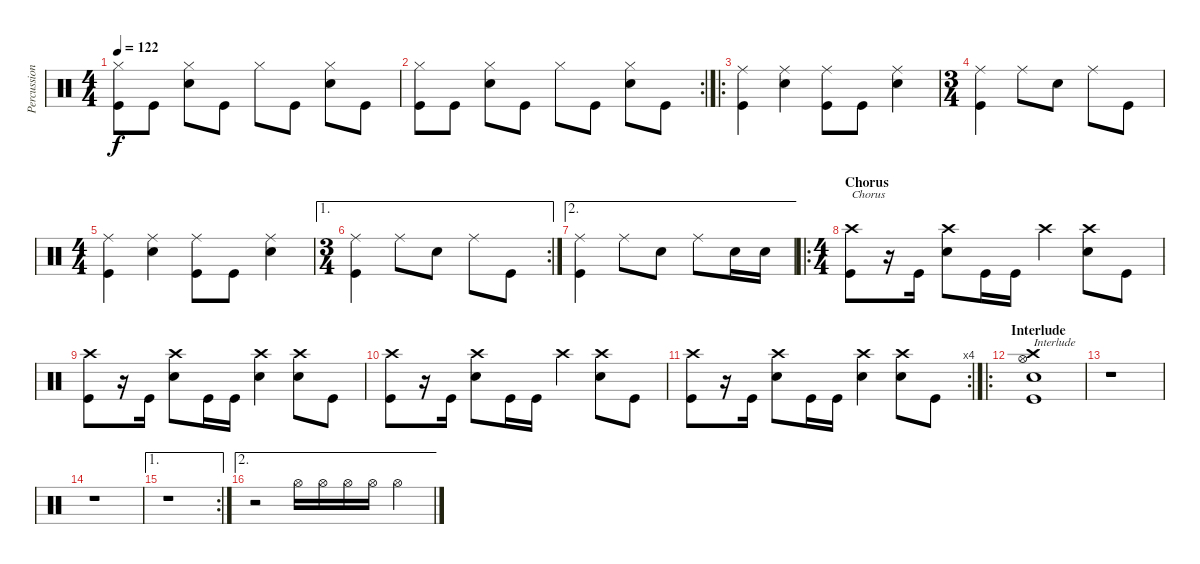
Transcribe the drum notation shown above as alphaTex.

\track ("Percussion" "Percussion") {instrument percussion}
\staff {score}
\articulation defaults
\ts (4 4)
\tempo 122
\clef neutral
\ks c
("Hi-Hat (closed)" "Kick (hit)").8{dy f} "Kick (hit)".8 ("Hi-Hat (closed)" "Snare (hit) 2").8 "Kick (hit)".8 "Hi-Hat (closed)".8 "Kick (hit)".8 ("Hi-Hat (closed)" "Snare (hit) 2").8 "Kick (hit)".8 |
\rc 2
("Hi-Hat (closed)" "Kick (hit)").8 "Kick (hit)".8 ("Hi-Hat (closed)" "Snare (hit) 2").8 "Kick (hit)".8 "Hi-Hat (closed)".8 "Kick (hit)".8 ("Hi-Hat (closed)" "Snare (hit) 2").8 "Kick (hit)".8 |
\ro
("Ride (middle)" "Kick (hit)").4 ("Ride (middle)" "Snare (hit) 2").4 ("Ride (middle)" "Kick (hit)").8 "Kick (hit)".8 ("Ride (middle)" "Snare (hit) 2").4 |
\ts (3 4)
("Ride (middle)" "Kick (hit)").4 "Ride (middle)".8 "Snare (hit) 2".8 "Ride (middle)".8 "Kick (hit)".8 |
\ts (4 4)
("Ride (middle)" "Kick (hit)").4 ("Ride (middle)" "Snare (hit) 2").4 ("Ride (middle)" "Kick (hit)").8 "Kick (hit)".8 ("Ride (middle)" "Snare (hit) 2").4 |
\ae 1
\rc 2
\ts (3 4)
("Ride (middle)" "Kick (hit)").4 "Ride (middle)".8 "Snare (hit) 2".8 "Ride (middle)".8 "Kick (hit)".8 |
\ae 2
("Ride (middle)" "Kick (hit)").4 "Ride (middle)".8 "Snare (hit) 2".8 "Ride (middle)".8 "Snare (hit) 2".16 "Snare (hit) 2".16 |
\ro
\ts (4 4)
\section ("" "Chorus")
("Crash high (hit)" "Kick (hit)").8{txt "Chorus"} r.16 "Kick (hit)".16 ("Crash high (hit)" "Snare (hit) 2").8 "Kick (hit)".16 "Kick (hit)".16 "Crash high (hit)".4 ("Crash high (hit)" "Snare (hit) 2").8 "Kick (hit)".8 |
("Crash high (hit)" "Kick (hit)").8 r.16 "Kick (hit)".16 ("Crash high (hit)" "Snare (hit) 2").8 "Kick (hit)".16 "Kick (hit)".16 ("Crash high (hit)" "Snare (hit) 2").4 ("Crash high (hit)" "Snare (hit) 2").8 "Kick (hit)".8 |
("Crash high (hit)" "Kick (hit)").8 r.16 "Kick (hit)".16 ("Crash high (hit)" "Snare (hit) 2").8 "Kick (hit)".16 "Kick (hit)".16 "Crash high (hit)".4 ("Crash high (hit)" "Snare (hit) 2").8 "Kick (hit)".8 |
\rc 4
("Crash high (hit)" "Kick (hit)").8 r.16 "Kick (hit)".16 ("Crash high (hit)" "Snare (hit) 2").8 "Kick (hit)".16 "Kick (hit)".16 ("Crash high (hit)" "Snare (hit) 2").4 ("Crash high (hit)" "Snare (hit) 2").8 "Kick (hit)".8 |
\ro
\section ("" "Interlude")
("Crash high (hit)" "Hi-Hat (open)" "Snare (hit) 2" "Kick (hit)").1{txt "Interlude"} |
r.1 |
r.1 |
\ae 1
\rc 2
r.1 |
\ae 2
r.2 "Hi-Hat (open)".16 "Hi-Hat (open)".16 "Hi-Hat (open)".16 "Hi-Hat (open)".16 "Hi-Hat (open)".4
